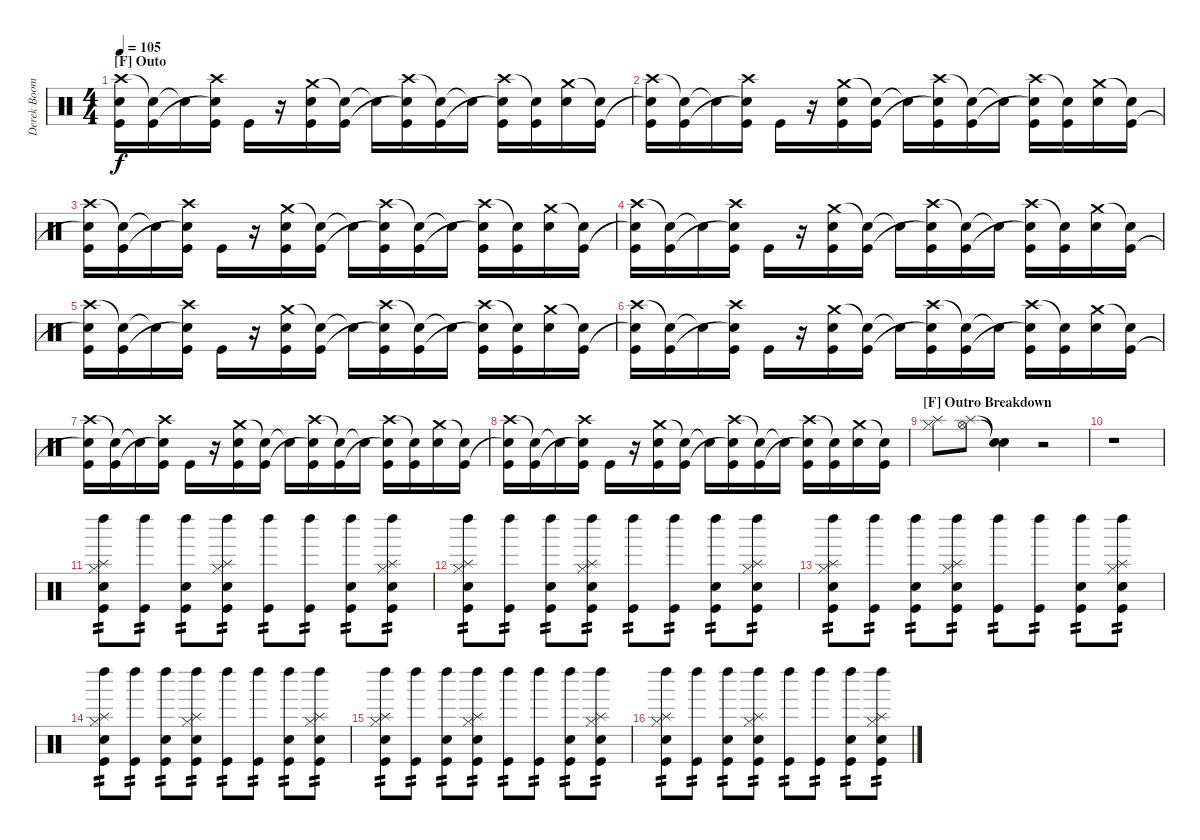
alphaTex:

\track ("Derek Boom" "Derek Boom") {instrument percussion}
\staff {score}
\articulation defaults
\ts (4 4)
\section ("" "[F] Outo")
\tempo 105
\clef neutral
\ks c
("Crash high (hit)" "Electric Snare (hit)"{t} "Kick (hit)").16{dy f} ("Snare (hit)"{t} "Kick (hit)").16 "Snare (hit)"{t}.16 ("Crash high (hit)" "Electric Snare (hit)"{t} "Kick (hit)").16 "Kick (hit)".16 r.16 ("Crash medium (hit)" "Electric Snare (hit)" "Kick (hit)").16 ("Snare (hit)"{t} "Kick (hit)").16 "Snare (hit)"{t}.16 ("Crash high (hit)" "Electric Snare (hit)"{t} "Kick (hit)").16 ("Snare (hit)"{t} "Kick (hit)").16 "Snare (hit)"{t}.16 ("Crash high (hit)" "Electric Snare (hit)"{t} "Kick (hit)").16 ("Snare (hit)"{t} "Kick (hit)").16 ("Crash medium (hit)" "Electric Snare (hit)").16 ("Snare (hit)"{t} "Kick (hit)").16 |
("Crash high (hit)" "Electric Snare (hit)"{t} "Kick (hit)").16 ("Snare (hit)"{t} "Kick (hit)").16 "Snare (hit)"{t}.16 ("Crash high (hit)" "Electric Snare (hit)"{t} "Kick (hit)").16 "Kick (hit)".16 r.16 ("Crash medium (hit)" "Electric Snare (hit)" "Kick (hit)").16 ("Snare (hit)"{t} "Kick (hit)").16 "Snare (hit)"{t}.16 ("Crash high (hit)" "Electric Snare (hit)"{t} "Kick (hit)").16 ("Snare (hit)"{t} "Kick (hit)").16 "Snare (hit)"{t}.16 ("Crash high (hit)" "Electric Snare (hit)"{t} "Kick (hit)").16 ("Snare (hit)"{t} "Kick (hit)").16 ("Crash medium (hit)" "Electric Snare (hit)").16 ("Snare (hit)"{t} "Kick (hit)").16 |
("Crash high (hit)" "Electric Snare (hit)"{t} "Kick (hit)").16 ("Snare (hit)"{t} "Kick (hit)").16 "Snare (hit)"{t}.16 ("Crash high (hit)" "Electric Snare (hit)"{t} "Kick (hit)").16 "Kick (hit)".16 r.16 ("Crash medium (hit)" "Electric Snare (hit)" "Kick (hit)").16 ("Snare (hit)"{t} "Kick (hit)").16 "Snare (hit)"{t}.16 ("Crash high (hit)" "Electric Snare (hit)"{t} "Kick (hit)").16 ("Snare (hit)"{t} "Kick (hit)").16 "Snare (hit)"{t}.16 ("Crash high (hit)" "Electric Snare (hit)"{t} "Kick (hit)").16 ("Snare (hit)"{t} "Kick (hit)").16 ("Crash medium (hit)" "Electric Snare (hit)").16 ("Snare (hit)"{t} "Kick (hit)").16 |
("Crash high (hit)" "Electric Snare (hit)"{t} "Kick (hit)").16 ("Snare (hit)"{t} "Kick (hit)").16 "Snare (hit)"{t}.16 ("Crash high (hit)" "Electric Snare (hit)"{t} "Kick (hit)").16 "Kick (hit)".16 r.16 ("Crash medium (hit)" "Electric Snare (hit)" "Kick (hit)").16 ("Snare (hit)"{t} "Kick (hit)").16 "Snare (hit)"{t}.16 ("Crash high (hit)" "Electric Snare (hit)"{t} "Kick (hit)").16 ("Snare (hit)"{t} "Kick (hit)").16 "Snare (hit)"{t}.16 ("Crash high (hit)" "Electric Snare (hit)"{t} "Kick (hit)").16 ("Snare (hit)"{t} "Kick (hit)").16 ("Crash medium (hit)" "Electric Snare (hit)").16 ("Snare (hit)"{t} "Kick (hit)").16 |
("Crash high (hit)" "Electric Snare (hit)"{t} "Kick (hit)").16 ("Snare (hit)"{t} "Kick (hit)").16 "Snare (hit)"{t}.16 ("Crash high (hit)" "Electric Snare (hit)"{t} "Kick (hit)").16 "Kick (hit)".16 r.16 ("Crash medium (hit)" "Electric Snare (hit)" "Kick (hit)").16 ("Snare (hit)"{t} "Kick (hit)").16 "Snare (hit)"{t}.16 ("Crash high (hit)" "Electric Snare (hit)"{t} "Kick (hit)").16 ("Snare (hit)"{t} "Kick (hit)").16 "Snare (hit)"{t}.16 ("Crash high (hit)" "Electric Snare (hit)"{t} "Kick (hit)").16 ("Snare (hit)"{t} "Kick (hit)").16 ("Crash medium (hit)" "Electric Snare (hit)").16 ("Snare (hit)"{t} "Kick (hit)").16 |
("Crash high (hit)" "Electric Snare (hit)"{t} "Kick (hit)").16 ("Snare (hit)"{t} "Kick (hit)").16 "Snare (hit)"{t}.16 ("Crash high (hit)" "Electric Snare (hit)"{t} "Kick (hit)").16 "Kick (hit)".16 r.16 ("Crash medium (hit)" "Electric Snare (hit)" "Kick (hit)").16 ("Snare (hit)"{t} "Kick (hit)").16 "Snare (hit)"{t}.16 ("Crash high (hit)" "Electric Snare (hit)"{t} "Kick (hit)").16 ("Snare (hit)"{t} "Kick (hit)").16 "Snare (hit)"{t}.16 ("Crash high (hit)" "Electric Snare (hit)"{t} "Kick (hit)").16 ("Snare (hit)"{t} "Kick (hit)").16 ("Crash medium (hit)" "Electric Snare (hit)").16 ("Snare (hit)"{t} "Kick (hit)").16 |
("Crash high (hit)" "Electric Snare (hit)"{t} "Kick (hit)").16 ("Snare (hit)"{t} "Kick (hit)").16 "Snare (hit)"{t}.16 ("Crash high (hit)" "Electric Snare (hit)"{t} "Kick (hit)").16 "Kick (hit)".16 r.16 ("Crash medium (hit)" "Electric Snare (hit)" "Kick (hit)").16 ("Snare (hit)"{t} "Kick (hit)").16 "Snare (hit)"{t}.16 ("Crash high (hit)" "Electric Snare (hit)"{t} "Kick (hit)").16 ("Snare (hit)"{t} "Kick (hit)").16 "Snare (hit)"{t}.16 ("Crash high (hit)" "Electric Snare (hit)"{t} "Kick (hit)").16 ("Snare (hit)"{t} "Kick (hit)").16 ("Crash medium (hit)" "Electric Snare (hit)").16 ("Snare (hit)"{t} "Kick (hit)").16 |
("Crash high (hit)" "Electric Snare (hit)"{t} "Kick (hit)").16 ("Snare (hit)"{t} "Kick (hit)").16 "Snare (hit)"{t}.16 ("Crash high (hit)" "Electric Snare (hit)"{t} "Kick (hit)").16 "Kick (hit)".16 r.16 ("Crash medium (hit)" "Electric Snare (hit)" "Kick (hit)").16 ("Snare (hit)"{t} "Kick (hit)").16 "Snare (hit)"{t}.16 ("Crash high (hit)" "Electric Snare (hit)"{t} "Kick (hit)").16 ("Snare (hit)"{t} "Kick (hit)").16 "Snare (hit)"{t}.16 ("Crash high (hit)" "Electric Snare (hit)"{t} "Kick (hit)").16 ("Snare (hit)"{t} "Kick (hit)").16 ("Crash medium (hit)" "Electric Snare (hit)").16 ("Snare (hit)"{t} "Kick (hit)").16 |
\section ("" "[F] Outro Breakdown")
("Splash (hit)" "Hi-Hat (closed)").8 ("Splash (hit)" "Hi-Hat (open)").8 ("Snare (hit)"{t} "Snare (hit)"{t}).4 r.2 |
r.1 |
("Splash (hit)" "Hi-Hat (closed)" "Left Maraca (hit)" "Electric Snare (hit)" "Kick (hit)").8{tp 2} ("Left Maraca (hit)" "Kick (hit)").8{tp 2} ("Left Maraca (hit)" "Electric Snare (hit)" "Kick (hit)").8{tp 2} ("Splash (hit)" "Hi-Hat (closed)" "Left Maraca (hit)" "Electric Snare (hit)" "Kick (hit)").8{tp 2} ("Left Maraca (hit)" "Kick (hit)").8{tp 2} ("Left Maraca (hit)" "Kick (hit)").8{tp 2} ("Left Maraca (hit)" "Electric Snare (hit)" "Kick (hit)").8{tp 2} ("Splash (hit)" "Hi-Hat (closed)" "Left Maraca (hit)" "Electric Snare (hit)" "Kick (hit)").8{tp 2} |
("Splash (hit)" "Hi-Hat (closed)" "Left Maraca (hit)" "Electric Snare (hit)" "Kick (hit)").8{tp 2} ("Left Maraca (hit)" "Kick (hit)").8{tp 2} ("Left Maraca (hit)" "Electric Snare (hit)" "Kick (hit)").8{tp 2} ("Splash (hit)" "Hi-Hat (closed)" "Left Maraca (hit)" "Electric Snare (hit)" "Kick (hit)").8{tp 2} ("Left Maraca (hit)" "Kick (hit)").8{tp 2} ("Left Maraca (hit)" "Kick (hit)").8{tp 2} ("Left Maraca (hit)" "Electric Snare (hit)" "Kick (hit)").8{tp 2} ("Splash (hit)" "Hi-Hat (closed)" "Left Maraca (hit)" "Electric Snare (hit)" "Kick (hit)").8{tp 2} |
("Splash (hit)" "Hi-Hat (closed)" "Left Maraca (hit)" "Electric Snare (hit)" "Kick (hit)").8{tp 2} ("Left Maraca (hit)" "Kick (hit)").8{tp 2} ("Left Maraca (hit)" "Electric Snare (hit)" "Kick (hit)").8{tp 2} ("Splash (hit)" "Hi-Hat (closed)" "Left Maraca (hit)" "Electric Snare (hit)" "Kick (hit)").8{tp 2} ("Left Maraca (hit)" "Kick (hit)").8{tp 2} ("Left Maraca (hit)" "Kick (hit)").8{tp 2} ("Left Maraca (hit)" "Electric Snare (hit)" "Kick (hit)").8{tp 2} ("Splash (hit)" "Hi-Hat (closed)" "Left Maraca (hit)" "Electric Snare (hit)" "Kick (hit)").8{tp 2} |
("Splash (hit)" "Hi-Hat (closed)" "Left Maraca (hit)" "Electric Snare (hit)" "Kick (hit)").8{tp 2} ("Left Maraca (hit)" "Kick (hit)").8{tp 2} ("Left Maraca (hit)" "Electric Snare (hit)" "Kick (hit)").8{tp 2} ("Splash (hit)" "Hi-Hat (closed)" "Left Maraca (hit)" "Electric Snare (hit)" "Kick (hit)").8{tp 2} ("Left Maraca (hit)" "Kick (hit)").8{tp 2} ("Left Maraca (hit)" "Kick (hit)").8{tp 2} ("Left Maraca (hit)" "Electric Snare (hit)" "Kick (hit)").8{tp 2} ("Splash (hit)" "Hi-Hat (closed)" "Left Maraca (hit)" "Electric Snare (hit)" "Kick (hit)").8{tp 2} |
("Splash (hit)" "Hi-Hat (closed)" "Left Maraca (hit)" "Electric Snare (hit)" "Kick (hit)").8{tp 2} ("Left Maraca (hit)" "Kick (hit)").8{tp 2} ("Left Maraca (hit)" "Electric Snare (hit)" "Kick (hit)").8{tp 2} ("Splash (hit)" "Hi-Hat (closed)" "Left Maraca (hit)" "Electric Snare (hit)" "Kick (hit)").8{tp 2} ("Left Maraca (hit)" "Kick (hit)").8{tp 2} ("Left Maraca (hit)" "Kick (hit)").8{tp 2} ("Left Maraca (hit)" "Electric Snare (hit)" "Kick (hit)").8{tp 2} ("Splash (hit)" "Hi-Hat (closed)" "Left Maraca (hit)" "Electric Snare (hit)" "Kick (hit)").8{tp 2} |
("Splash (hit)" "Hi-Hat (closed)" "Left Maraca (hit)" "Electric Snare (hit)" "Kick (hit)").8{tp 2} ("Left Maraca (hit)" "Kick (hit)").8{tp 2} ("Left Maraca (hit)" "Electric Snare (hit)" "Kick (hit)").8{tp 2} ("Splash (hit)" "Hi-Hat (closed)" "Left Maraca (hit)" "Electric Snare (hit)" "Kick (hit)").8{tp 2} ("Left Maraca (hit)" "Kick (hit)").8{tp 2} ("Left Maraca (hit)" "Kick (hit)").8{tp 2} ("Left Maraca (hit)" "Electric Snare (hit)" "Kick (hit)").8{tp 2} ("Splash (hit)" "Hi-Hat (closed)" "Left Maraca (hit)" "Electric Snare (hit)" "Kick (hit)").8{tp 2}
